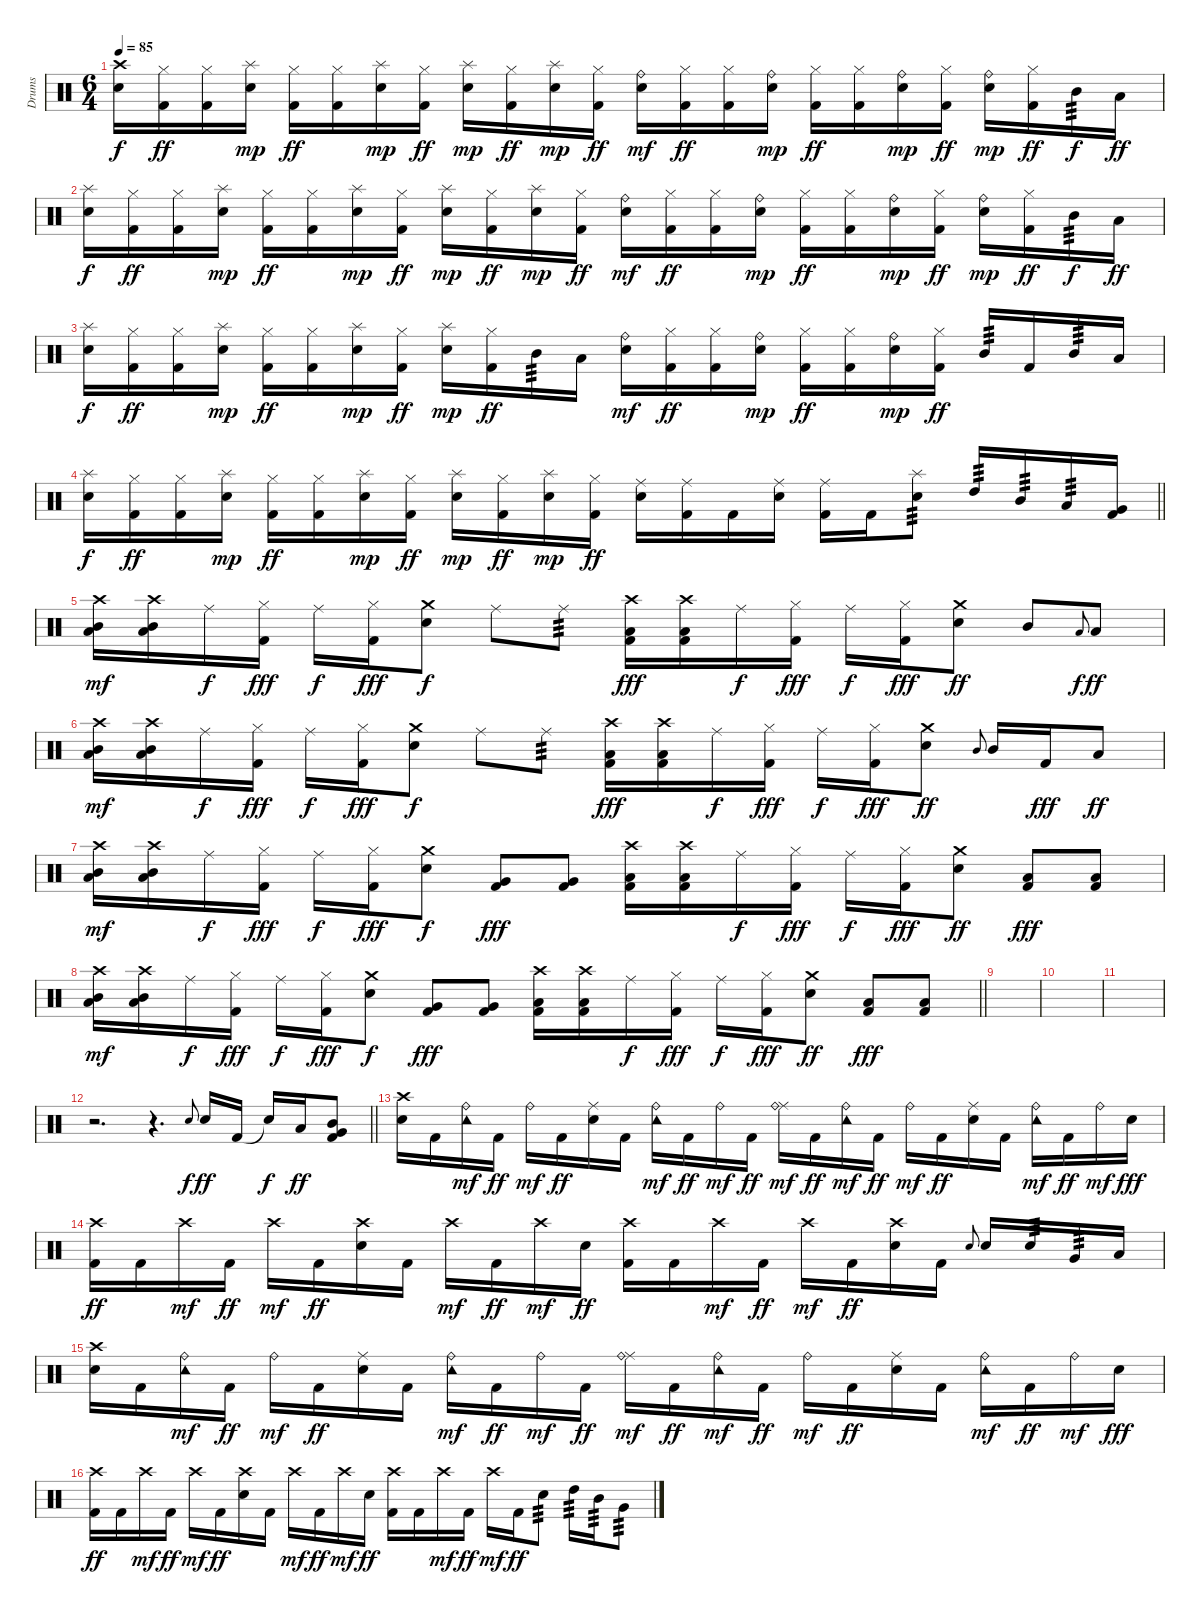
\track ("Drums" "Drums") {instrument percussion}
\staff {score}
\articulation defaults
\ts (6 4)
\section ("" "")
\tempo 85
\clef neutral
\ks c
("Crash high (hit)" "Snare (hit) 2").16{dy f} ("Hi-Hat (closed)" "Kick (hit) 2").16{dy ff} ("Hi-Hat (closed)" "Kick (hit) 2").16 ("Splash (hit)" "Snare (hit) 2").16{dy mp} ("Hi-Hat (closed)" "Kick (hit) 2").16{dy ff} ("Hi-Hat (closed)" "Kick (hit) 2").16 ("Splash (hit)" "Snare (hit) 2").16{dy mp} ("Hi-Hat (closed)" "Kick (hit) 2").16{dy ff} ("Splash (hit)" "Snare (hit) 2").16{dy mp} ("Hi-Hat (closed)" "Kick (hit) 2").16{dy ff} ("Splash (hit)" "Snare (hit) 2").16{dy mp} ("Hi-Hat (closed)" "Kick (hit) 2").16{dy ff} ("Ride (bell)" "Snare (hit) 2").16{dy mf} ("Hi-Hat (closed)" "Kick (hit) 2").16{dy ff} ("Hi-Hat (closed)" "Kick (hit) 2").16 ("Ride (bell)" "Snare (hit) 2").16{dy mp} ("Hi-Hat (closed)" "Kick (hit) 2").16{dy ff} ("Hi-Hat (closed)" "Kick (hit) 2").16 ("Ride (bell)" "Snare (hit) 2").16{dy mp} ("Hi-Hat (closed)" "Kick (hit) 2").16{dy ff} ("Ride (bell)" "Snare (hit) 2").16{dy mp} ("Hi-Hat (closed)" "Kick (hit) 2").16{dy ff} "Mid Tom (hit)".16{tp 3 dy f} "Low Tom (hit)".16{dy ff} |
("Splash (hit)" "Snare (hit) 2").16{dy f} ("Hi-Hat (closed)" "Kick (hit) 2").16{dy ff} ("Hi-Hat (closed)" "Kick (hit) 2").16 ("Splash (hit)" "Snare (hit) 2").16{dy mp} ("Hi-Hat (closed)" "Kick (hit) 2").16{dy ff} ("Hi-Hat (closed)" "Kick (hit) 2").16 ("Splash (hit)" "Snare (hit) 2").16{dy mp} ("Hi-Hat (closed)" "Kick (hit) 2").16{dy ff} ("Splash (hit)" "Snare (hit) 2").16{dy mp} ("Hi-Hat (closed)" "Kick (hit) 2").16{dy ff} ("Splash (hit)" "Snare (hit) 2").16{dy mp} ("Hi-Hat (closed)" "Kick (hit) 2").16{dy ff} ("Ride (bell)" "Snare (hit) 2").16{dy mf} ("Hi-Hat (closed)" "Kick (hit) 2").16{dy ff} ("Hi-Hat (closed)" "Kick (hit) 2").16 ("Ride (bell)" "Snare (hit) 2").16{dy mp} ("Hi-Hat (closed)" "Kick (hit) 2").16{dy ff} ("Hi-Hat (closed)" "Kick (hit) 2").16 ("Ride (bell)" "Snare (hit) 2").16{dy mp} ("Hi-Hat (closed)" "Kick (hit) 2").16{dy ff} ("Ride (bell)" "Snare (hit) 2").16{dy mp} ("Hi-Hat (closed)" "Kick (hit) 2").16{dy ff} "Mid Tom (hit)".16{tp 3 dy f} "Low Tom (hit)".16{dy ff} |
("Splash (hit)" "Snare (hit) 2").16{dy f} ("Hi-Hat (closed)" "Kick (hit) 2").16{dy ff} ("Hi-Hat (closed)" "Kick (hit) 2").16 ("Splash (hit)" "Snare (hit) 2").16{dy mp} ("Hi-Hat (closed)" "Kick (hit) 2").16{dy ff} ("Hi-Hat (closed)" "Kick (hit) 2").16 ("Splash (hit)" "Snare (hit) 2").16{dy mp} ("Hi-Hat (closed)" "Kick (hit) 2").16{dy ff} ("Splash (hit)" "Snare (hit) 2").16{dy mp} ("Hi-Hat (closed)" "Kick (hit) 2").16{dy ff} "Mid Tom (hit)".16{tp 3} "Low Tom (hit)".16 ("Ride (bell)" "Snare (hit) 2").16{dy mf} ("Hi-Hat (closed)" "Kick (hit) 2").16{dy ff} ("Hi-Hat (closed)" "Kick (hit) 2").16 ("Ride (bell)" "Snare (hit) 2").16{dy mp} ("Hi-Hat (closed)" "Kick (hit) 2").16{dy ff} ("Hi-Hat (closed)" "Kick (hit) 2").16 ("Ride (bell)" "Snare (hit) 2").16{dy mp} ("Hi-Hat (closed)" "Kick (hit) 2").16{dy ff} "Mid Tom (hit)".16{tp 3} "Kick (hit) 2".16 "Mid Tom (hit)".16{tp 3} "Low Tom (hit)".16 |
\barLineRight lightlight
("Splash (hit)" "Snare (hit) 2").16{dy f} ("Hi-Hat (closed)" "Kick (hit) 2").16{dy ff} ("Hi-Hat (closed)" "Kick (hit) 2").16 ("Splash (hit)" "Snare (hit) 2").16{dy mp} ("Hi-Hat (closed)" "Kick (hit) 2").16{dy ff} ("Hi-Hat (closed)" "Kick (hit) 2").16 ("Splash (hit)" "Snare (hit) 2").16{dy mp} ("Hi-Hat (closed)" "Kick (hit) 2").16{dy ff} ("Splash (hit)" "Snare (hit) 2").16{dy mp} ("Hi-Hat (closed)" "Kick (hit) 2").16{dy ff} ("Splash (hit)" "Snare (hit) 2").16{dy mp} ("Hi-Hat (closed)" "Kick (hit) 2").16{dy ff} ("Ride (middle)" "Snare (hit) 2").16 ("Ride (middle)" "Kick (hit) 2").16 "Kick (hit) 2".16 ("Ride (middle)" "Snare (hit) 2").16 ("Ride (middle)" "Kick (hit) 2").16 "Kick (hit) 2".16 ("Splash (hit)" "Snare (hit) 2").8{tp 3} "High Tom (hit)".16{tp 3} "Mid Tom (hit)".16{tp 3} "Low Tom (hit)".16{tp 3} ("Very Low Tom (hit)" "Kick (hit) 2").16 |
\section ("" "")
("Crash high (hit)" "Mid Tom (hit)" "Low Tom (hit)").16{dy mf} ("Crash high (hit)" "Mid Tom (hit)" "Low Tom (hit)").16 "Ride (middle)".16{dy f} ("Hi-Hat (closed)" "Kick (hit) 2").16{dy fff} "Ride (middle)".16{dy f} ("Hi-Hat (closed)" "Kick (hit) 2").16{dy fff} ("Crash medium (hit)" "Snare (hit) 2").8{dy f} "Ride (middle)".8 "Ride (middle)".8{tp 3} ("Crash high (hit)" "Low Tom (hit)" "Kick (hit) 2").16{dy fff} ("Crash high (hit)" "Low Tom (hit)" "Kick (hit) 2").16 "Ride (middle)".16{dy f} ("Hi-Hat (closed)" "Kick (hit) 2").16{dy fff} "Ride (middle)".16{dy f} ("Hi-Hat (closed)" "Kick (hit) 2").16{dy fff} ("Crash medium (hit)" "Snare (hit) 2").8{dy ff} "Mid Tom (hit)".8 "Low Tom (hit)".8{gr onbeat dy f} "Low Tom (hit)".8{dy ff} |
("Crash high (hit)" "Mid Tom (hit)" "Low Tom (hit)").16{dy mf} ("Crash high (hit)" "Mid Tom (hit)" "Low Tom (hit)").16 "Ride (middle)".16{dy f} ("Hi-Hat (closed)" "Kick (hit) 2").16{dy fff} "Ride (middle)".16{dy f} ("Hi-Hat (closed)" "Kick (hit) 2").16{dy fff} ("Crash medium (hit)" "Snare (hit) 2").8{dy f} "Ride (middle)".8 "Ride (middle)".8{tp 3} ("Crash high (hit)" "Low Tom (hit)" "Kick (hit) 2").16{dy fff} ("Crash high (hit)" "Low Tom (hit)" "Kick (hit) 2").16 "Ride (middle)".16{dy f} ("Hi-Hat (closed)" "Kick (hit) 2").16{dy fff} "Ride (middle)".16{dy f} ("Hi-Hat (closed)" "Kick (hit) 2").16{dy fff} ("Crash medium (hit)" "Snare (hit) 2").8{dy ff} "Mid Tom (hit)".8{gr onbeat} "Mid Tom (hit)".16 "Kick (hit) 2".16{dy fff} "Low Tom (hit)".8{dy ff} |
("Crash high (hit)" "Mid Tom (hit)" "Low Tom (hit)").16{dy mf} ("Crash high (hit)" "Mid Tom (hit)" "Low Tom (hit)").16 "Ride (middle)".16{dy f} ("Hi-Hat (closed)" "Kick (hit) 2").16{dy fff} "Ride (middle)".16{dy f} ("Hi-Hat (closed)" "Kick (hit) 2").16{dy fff} ("Crash medium (hit)" "Snare (hit) 2").8{dy f} ("Very Low Tom (hit)" "Kick (hit) 2").8{dy fff} ("Very Low Tom (hit)" "Kick (hit) 2").8 ("Crash high (hit)" "Low Tom (hit)" "Kick (hit) 2").16 ("Crash high (hit)" "Low Tom (hit)" "Kick (hit) 2").16 "Ride (middle)".16{dy f} ("Hi-Hat (closed)" "Kick (hit) 2").16{dy fff} "Ride (middle)".16{dy f} ("Hi-Hat (closed)" "Kick (hit) 2").16{dy fff} ("Crash medium (hit)" "Snare (hit) 2").8{dy ff} ("Low Floor Tom (hit)" "Kick (hit) 2").8{dy fff} ("Low Floor Tom (hit)" "Kick (hit) 2").8 |
\barLineRight lightlight
("Crash high (hit)" "Mid Tom (hit)" "Low Tom (hit)").16{dy mf} ("Crash high (hit)" "Mid Tom (hit)" "Low Tom (hit)").16 "Ride (middle)".16{dy f} ("Hi-Hat (closed)" "Kick (hit) 2").16{dy fff} "Ride (middle)".16{dy f} ("Hi-Hat (closed)" "Kick (hit) 2").16{dy fff} ("Crash medium (hit)" "Snare (hit) 2").8{dy f} ("Very Low Tom (hit)" "Kick (hit) 2").8{dy fff} ("Very Low Tom (hit)" "Kick (hit) 2").8 ("Crash high (hit)" "Low Tom (hit)" "Kick (hit) 2").16 ("Crash high (hit)" "Low Tom (hit)" "Kick (hit) 2").16 "Ride (middle)".16{dy f} ("Hi-Hat (closed)" "Kick (hit) 2").16{dy fff} "Ride (middle)".16{dy f} ("Hi-Hat (closed)" "Kick (hit) 2").16{dy fff} ("Crash medium (hit)" "Snare (hit) 2").8{dy ff} ("Low Floor Tom (hit)" "Kick (hit) 2").8{dy fff} ("Low Floor Tom (hit)" "Kick (hit) 2").8 |
\section ("" "")
|
|
|
\barLineRight lightlight
r.2{d} r.4{d} "Snare (hit) 2".8{gr onbeat dy f} "Snare (hit) 2".16{dy ff} "Kick (hit) 2".16 "Snare (hit)"{t}.16{dy f} "Low Tom (hit)".16{dy ff} ("Mid Tom (hit)" "Very Low Tom (hit)" "Kick (hit) 2").8 |
\section ("" "")
("Crash high (hit)" "Snare (hit) 2").16 "Kick (hit) 2".16 ("Tambourine (hit)" "Ride (bell)").16{dy mf} "Kick (hit) 2".16{dy ff} "Ride (bell)".16{dy mf} "Kick (hit) 2".16{dy ff} ("Ride (middle)" "Snare (hit) 2").16 "Kick (hit) 2".16 ("Tambourine (hit)" "Ride (bell)").16{dy mf} "Kick (hit) 2".16{dy ff} "Ride (bell)".16{dy mf} "Kick (hit) 2".16{dy ff} ("Ride (middle)" "Ride (bell)").16{dy mf} "Kick (hit) 2".16{dy ff} ("Tambourine (hit)" "Ride (bell)").16{dy mf} "Kick (hit) 2".16{dy ff} "Ride (bell)".16{dy mf} "Kick (hit) 2".16{dy ff} ("Ride (middle)" "Snare (hit) 2").16 "Kick (hit) 2".16 ("Tambourine (hit)" "Ride (bell)").16{dy mf} "Kick (hit) 2".16{dy ff} "Ride (bell)".16{dy mf} "Snare (hit) 2".16{dy fff} |
("Crash high (hit)" "Kick (hit) 2").16{dy ff} "Kick (hit) 2".16 "Crash high (hit)".16{dy mf} "Kick (hit) 2".16{dy ff} "Crash high (hit)".16{dy mf} "Kick (hit) 2".16{dy ff} ("Crash high (hit)" "Snare (hit) 2").16 "Kick (hit) 2".16 "Crash high (hit)".16{dy mf} "Kick (hit) 2".16{dy ff} "Crash high (hit)".16{dy mf} "Snare (hit) 2".16{dy ff} ("Crash high (hit)" "Kick (hit) 2").16 "Kick (hit) 2".16 "Crash high (hit)".16{dy mf} "Kick (hit) 2".16{dy ff} "Crash high (hit)".16{dy mf} "Kick (hit) 2".16{dy ff} ("Crash high (hit)" "Snare (hit) 2").16 "Kick (hit) 2".16 "Snare (hit) 2".8{gr onbeat} "Snare (hit) 2".16 "Snare (hit) 2".16{tp 3} "Very Low Tom (hit)".16{tp 3} "Low Floor Tom (hit)".16 |
("Crash high (hit)" "Snare (hit) 2").16 "Kick (hit) 2".16 ("Tambourine (hit)" "Ride (bell)").16{dy mf} "Kick (hit) 2".16{dy ff} "Ride (bell)".16{dy mf} "Kick (hit) 2".16{dy ff} ("Ride (middle)" "Snare (hit) 2").16 "Kick (hit) 2".16 ("Tambourine (hit)" "Ride (bell)").16{dy mf} "Kick (hit) 2".16{dy ff} "Ride (bell)".16{dy mf} "Kick (hit) 2".16{dy ff} ("Ride (middle)" "Ride (bell)").16{dy mf} "Kick (hit) 2".16{dy ff} ("Tambourine (hit)" "Ride (bell)").16{dy mf} "Kick (hit) 2".16{dy ff} "Ride (bell)".16{dy mf} "Kick (hit) 2".16{dy ff} ("Ride (middle)" "Snare (hit) 2").16 "Kick (hit) 2".16 ("Tambourine (hit)" "Ride (bell)").16{dy mf} "Kick (hit) 2".16{dy ff} "Ride (bell)".16{dy mf} "Snare (hit) 2".16{dy fff} |
("Crash high (hit)" "Kick (hit) 2").16{dy ff} "Kick (hit) 2".16 "Crash high (hit)".16{dy mf} "Kick (hit) 2".16{dy ff} "Crash high (hit)".16{dy mf} "Kick (hit) 2".16{dy ff} ("Crash high (hit)" "Snare (hit) 2").16 "Kick (hit) 2".16 "Crash high (hit)".16{dy mf} "Kick (hit) 2".16{dy ff} "Crash high (hit)".16{dy mf} "Snare (hit) 2".16{dy ff} ("Crash high (hit)" "Kick (hit) 2").16 "Kick (hit) 2".16 "Crash high (hit)".16{dy mf} "Kick (hit) 2".16{dy ff} "Crash high (hit)".16{dy mf} "Kick (hit) 2".16{dy ff} "Snare (hit) 2".8{tp 3} "High Tom (hit)".16{tp 3} "Mid Tom (hit)".16{tp 3} "Very Low Tom (hit)".8{tp 3}
